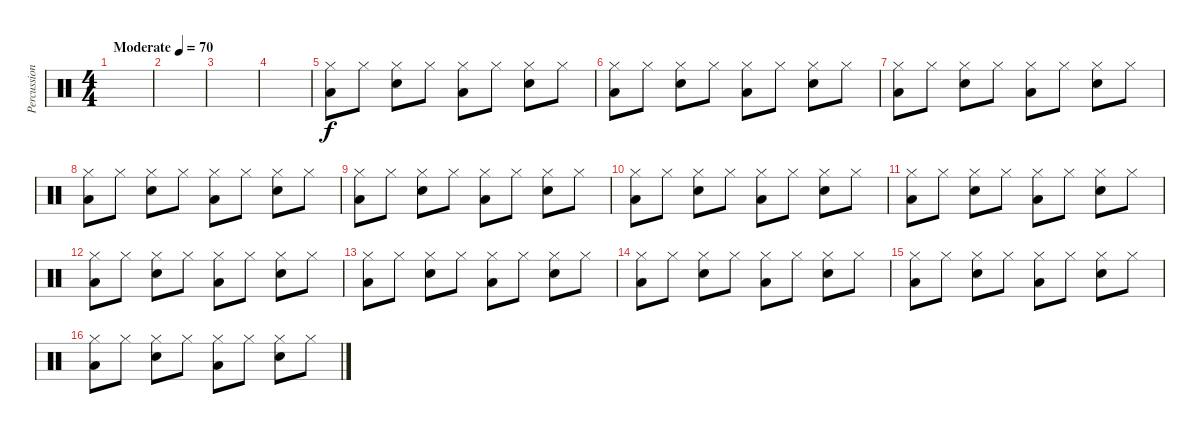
\track ("Percussions" "Percussion") {instrument percussion}
\staff {score}
\articulation defaults
\ts (4 4)
\tempo (70 "Moderate")
\clef neutral
\ks c
|
|
|
|
("Hi-Hat (closed)" "Low Floor Tom (hit)").8 "Hi-Hat (closed)".8 ("Hi-Hat (closed)" "Electric Snare (hit)").8 "Hi-Hat (closed)".8 ("Hi-Hat (closed)" "Low Floor Tom (hit)").8 "Hi-Hat (closed)".8 ("Hi-Hat (closed)" "Electric Snare (hit)").8 "Hi-Hat (closed)".8 |
("Hi-Hat (closed)" "Low Floor Tom (hit)").8 "Hi-Hat (closed)".8 ("Hi-Hat (closed)" "Electric Snare (hit)").8 "Hi-Hat (closed)".8 ("Hi-Hat (closed)" "Low Floor Tom (hit)").8 "Hi-Hat (closed)".8 ("Hi-Hat (closed)" "Electric Snare (hit)").8 "Hi-Hat (closed)".8 |
("Hi-Hat (closed)" "Low Floor Tom (hit)").8 "Hi-Hat (closed)".8 ("Hi-Hat (closed)" "Electric Snare (hit)").8 "Hi-Hat (closed)".8 ("Hi-Hat (closed)" "Low Floor Tom (hit)").8 "Hi-Hat (closed)".8 ("Hi-Hat (closed)" "Electric Snare (hit)").8 "Hi-Hat (closed)".8 |
("Hi-Hat (closed)" "Low Floor Tom (hit)").8 "Hi-Hat (closed)".8 ("Hi-Hat (closed)" "Electric Snare (hit)").8 "Hi-Hat (closed)".8 ("Hi-Hat (closed)" "Low Floor Tom (hit)").8 "Hi-Hat (closed)".8 ("Hi-Hat (closed)" "Electric Snare (hit)").8 "Hi-Hat (closed)".8 |
("Hi-Hat (closed)" "Low Floor Tom (hit)").8 "Hi-Hat (closed)".8 ("Hi-Hat (closed)" "Electric Snare (hit)").8 "Hi-Hat (closed)".8 ("Hi-Hat (closed)" "Low Floor Tom (hit)").8 "Hi-Hat (closed)".8 ("Hi-Hat (closed)" "Electric Snare (hit)").8 "Hi-Hat (closed)".8 |
("Hi-Hat (closed)" "Low Floor Tom (hit)").8 "Hi-Hat (closed)".8 ("Hi-Hat (closed)" "Electric Snare (hit)").8 "Hi-Hat (closed)".8 ("Hi-Hat (closed)" "Low Floor Tom (hit)").8 "Hi-Hat (closed)".8 ("Hi-Hat (closed)" "Electric Snare (hit)").8 "Hi-Hat (closed)".8 |
("Hi-Hat (closed)" "Low Floor Tom (hit)").8 "Hi-Hat (closed)".8 ("Hi-Hat (closed)" "Electric Snare (hit)").8 "Hi-Hat (closed)".8 ("Hi-Hat (closed)" "Low Floor Tom (hit)").8 "Hi-Hat (closed)".8 ("Hi-Hat (closed)" "Electric Snare (hit)").8 "Hi-Hat (closed)".8 |
("Hi-Hat (closed)" "Low Floor Tom (hit)").8 "Hi-Hat (closed)".8 ("Hi-Hat (closed)" "Electric Snare (hit)").8 "Hi-Hat (closed)".8 ("Hi-Hat (closed)" "Low Floor Tom (hit)").8 "Hi-Hat (closed)".8 ("Hi-Hat (closed)" "Electric Snare (hit)").8 "Hi-Hat (closed)".8 |
("Hi-Hat (closed)" "Low Floor Tom (hit)").8 "Hi-Hat (closed)".8 ("Hi-Hat (closed)" "Electric Snare (hit)").8 "Hi-Hat (closed)".8 ("Hi-Hat (closed)" "Low Floor Tom (hit)").8 "Hi-Hat (closed)".8 ("Hi-Hat (closed)" "Electric Snare (hit)").8 "Hi-Hat (closed)".8 |
("Hi-Hat (closed)" "Low Floor Tom (hit)").8 "Hi-Hat (closed)".8 ("Hi-Hat (closed)" "Electric Snare (hit)").8 "Hi-Hat (closed)".8 ("Hi-Hat (closed)" "Low Floor Tom (hit)").8 "Hi-Hat (closed)".8 ("Hi-Hat (closed)" "Electric Snare (hit)").8 "Hi-Hat (closed)".8 |
("Hi-Hat (closed)" "Low Floor Tom (hit)").8 "Hi-Hat (closed)".8 ("Hi-Hat (closed)" "Electric Snare (hit)").8 "Hi-Hat (closed)".8 ("Hi-Hat (closed)" "Low Floor Tom (hit)").8 "Hi-Hat (closed)".8 ("Hi-Hat (closed)" "Electric Snare (hit)").8 "Hi-Hat (closed)".8 |
("Hi-Hat (closed)" "Low Floor Tom (hit)").8 "Hi-Hat (closed)".8 ("Hi-Hat (closed)" "Electric Snare (hit)").8 "Hi-Hat (closed)".8 ("Hi-Hat (closed)" "Low Floor Tom (hit)").8 "Hi-Hat (closed)".8 ("Hi-Hat (closed)" "Electric Snare (hit)").8 "Hi-Hat (closed)".8
